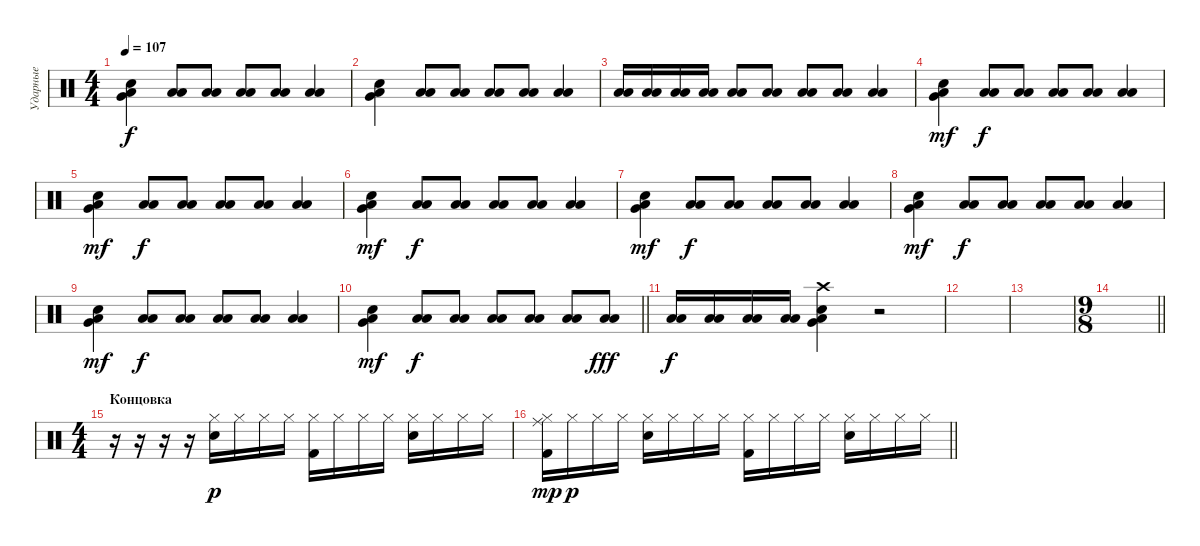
\track ("Ударные" "Ударные") {solo instrument percussion}
\staff {score}
\articulation defaults
\ts (4 4)
\tempo 107
\clef neutral
\ks c
("Electric Snare (hit)" "Very Low Tom (hit)" "Low Tom (hit)").4{dy f} ("Low Floor Tom (hit)" "Low Tom (hit)").8 ("Low Floor Tom (hit)" "Low Tom (hit)").8 ("Low Floor Tom (hit)" "Low Tom (hit)").8 ("Low Floor Tom (hit)" "Low Tom (hit)").8 ("Low Floor Tom (hit)" "Low Tom (hit)").4 |
("Electric Snare (hit)" "Very Low Tom (hit)" "Low Tom (hit)").4 ("Low Floor Tom (hit)" "Low Tom (hit)").8 ("Low Floor Tom (hit)" "Low Tom (hit)").8 ("Low Floor Tom (hit)" "Low Tom (hit)").8 ("Low Floor Tom (hit)" "Low Tom (hit)").8 ("Low Floor Tom (hit)" "Low Tom (hit)").4 |
("Low Floor Tom (hit)" "Low Tom (hit)").16 ("Low Floor Tom (hit)" "Low Tom (hit)").16 ("Low Floor Tom (hit)" "Low Tom (hit)").16 ("Low Floor Tom (hit)" "Low Tom (hit)").16 ("Low Floor Tom (hit)" "Low Tom (hit)").8 ("Low Floor Tom (hit)" "Low Tom (hit)").8 ("Low Floor Tom (hit)" "Low Tom (hit)").8 ("Low Floor Tom (hit)" "Low Tom (hit)").8 ("Low Floor Tom (hit)" "Low Tom (hit)").4 |
("Electric Snare (hit)" "Very Low Tom (hit)" "Low Tom (hit)").4{dy mf} ("Low Floor Tom (hit)" "Low Tom (hit)").8{dy f} ("Low Floor Tom (hit)" "Low Tom (hit)").8 ("Low Floor Tom (hit)" "Low Tom (hit)").8 ("Low Floor Tom (hit)" "Low Tom (hit)").8 ("Low Floor Tom (hit)" "Low Tom (hit)").4 |
("Electric Snare (hit)" "Very Low Tom (hit)" "Low Tom (hit)").4{dy mf} ("Low Floor Tom (hit)" "Low Tom (hit)").8{dy f} ("Low Floor Tom (hit)" "Low Tom (hit)").8 ("Low Floor Tom (hit)" "Low Tom (hit)").8 ("Low Floor Tom (hit)" "Low Tom (hit)").8 ("Low Floor Tom (hit)" "Low Tom (hit)").4 |
("Electric Snare (hit)" "Very Low Tom (hit)" "Low Tom (hit)").4{dy mf} ("Low Floor Tom (hit)" "Low Tom (hit)").8{dy f} ("Low Floor Tom (hit)" "Low Tom (hit)").8 ("Low Floor Tom (hit)" "Low Tom (hit)").8 ("Low Floor Tom (hit)" "Low Tom (hit)").8 ("Low Floor Tom (hit)" "Low Tom (hit)").4 |
("Electric Snare (hit)" "Very Low Tom (hit)" "Low Tom (hit)").4{dy mf} ("Low Floor Tom (hit)" "Low Tom (hit)").8{dy f} ("Low Floor Tom (hit)" "Low Tom (hit)").8 ("Low Floor Tom (hit)" "Low Tom (hit)").8 ("Low Floor Tom (hit)" "Low Tom (hit)").8 ("Low Floor Tom (hit)" "Low Tom (hit)").4 |
("Electric Snare (hit)" "Very Low Tom (hit)" "Low Tom (hit)").4{dy mf} ("Low Floor Tom (hit)" "Low Tom (hit)").8{dy f} ("Low Floor Tom (hit)" "Low Tom (hit)").8 ("Low Floor Tom (hit)" "Low Tom (hit)").8 ("Low Floor Tom (hit)" "Low Tom (hit)").8 ("Low Floor Tom (hit)" "Low Tom (hit)").4 |
("Electric Snare (hit)" "Very Low Tom (hit)" "Low Tom (hit)").4{dy mf} ("Low Floor Tom (hit)" "Low Tom (hit)").8{dy f} ("Low Floor Tom (hit)" "Low Tom (hit)").8 ("Low Floor Tom (hit)" "Low Tom (hit)").8 ("Low Floor Tom (hit)" "Low Tom (hit)").8 ("Low Floor Tom (hit)" "Low Tom (hit)").4 |
\barLineRight lightlight
("Electric Snare (hit)" "Very Low Tom (hit)" "Low Tom (hit)").4{dy mf} ("Low Floor Tom (hit)" "Low Tom (hit)").8{dy f} ("Low Floor Tom (hit)" "Low Tom (hit)").8 ("Low Floor Tom (hit)" "Low Tom (hit)").8 ("Low Floor Tom (hit)" "Low Tom (hit)").8 ("Low Floor Tom (hit)" "Low Tom (hit)").8 ("Low Floor Tom (hit)" "Low Tom (hit)").8{dy fff} |
("Low Floor Tom (hit)" "Low Tom (hit)").16{dy f} ("Low Floor Tom (hit)" "Low Tom (hit)").16 ("Low Floor Tom (hit)" "Low Tom (hit)").16 ("Low Floor Tom (hit)" "Low Tom (hit)").16 ("Electric Snare (hit)" "Very Low Tom (hit)" "Low Tom (hit)" "Crash high (hit)").4 r.2 |
|
|
\ts (9 8)
\barLineRight lightlight
|
\ts (4 4)
\section ("" "Концовка")
r.16 r.16 r.16 r.16 ("Snare (hit) 2" "Hi-Hat (closed)").16{dy p} "Hi-Hat (closed)".16 "Hi-Hat (closed)".16 "Hi-Hat (closed)".16 ("Kick (hit) 2" "Hi-Hat (closed)").16 "Hi-Hat (closed)".16 "Hi-Hat (closed)".16 "Hi-Hat (closed)".16 ("Snare (hit) 2" "Hi-Hat (closed)").16 "Hi-Hat (closed)".16 "Hi-Hat (closed)".16 "Hi-Hat (closed)".16 |
\barLineRight lightlight
("Kick (hit) 2" "Hi-Hat (closed)" "Ride (middle)").16{dy mp} "Hi-Hat (closed)".16{dy p} "Hi-Hat (closed)".16 "Hi-Hat (closed)".16 ("Snare (hit) 2" "Hi-Hat (closed)").16 "Hi-Hat (closed)".16 "Hi-Hat (closed)".16 "Hi-Hat (closed)".16 ("Kick (hit) 2" "Hi-Hat (closed)").16 "Hi-Hat (closed)".16 "Hi-Hat (closed)".16 "Hi-Hat (closed)".16 ("Snare (hit) 2" "Hi-Hat (closed)").16 "Hi-Hat (closed)".16 "Hi-Hat (closed)".16 "Hi-Hat (closed)".16
